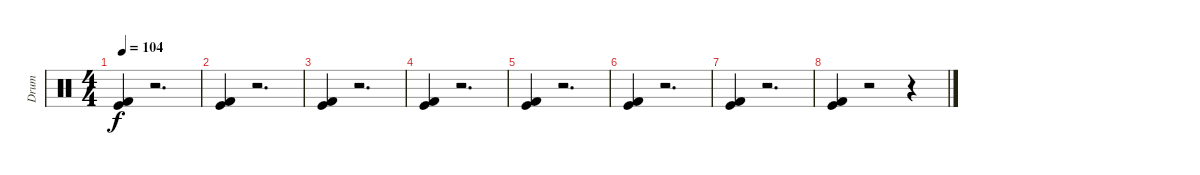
\track ("Drum" "Drum") {instrument percussion}
\staff {score}
\articulation defaults
\ts (4 4)
\tempo 104
\clef neutral
\ks c
("Kick (hit) 2" "Kick (hit)").4{dy f} r.2{d} |
("Kick (hit) 2" "Kick (hit)").4 r.2{d} |
("Kick (hit) 2" "Kick (hit)").4 r.2{d} |
("Kick (hit) 2" "Kick (hit)").4 r.2{d} |
("Kick (hit) 2" "Kick (hit)").4 r.2{d} |
("Kick (hit) 2" "Kick (hit)").4 r.2{d} |
("Kick (hit) 2" "Kick (hit)").4 r.2{d} |
("Kick (hit) 2" "Kick (hit)").4 r.2 r.4
